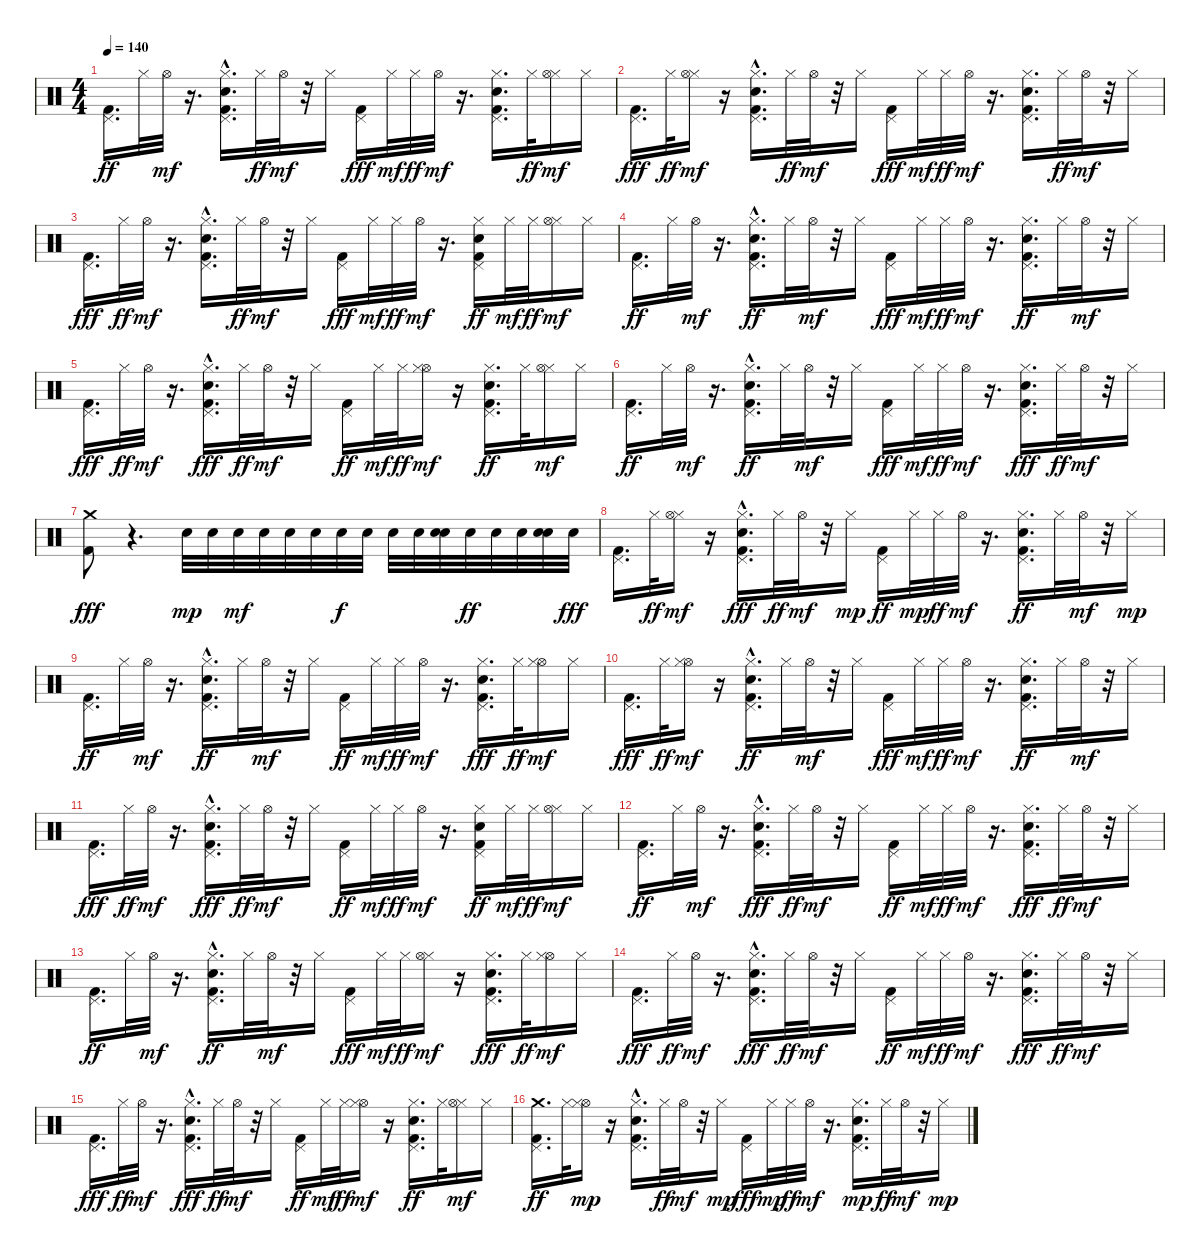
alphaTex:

\track "" {instrument percussion}
\staff {score}
\articulation defaults
\ts (4 4)
\tempo 140
\clef neutral
\ks c
("Kick (hit) 2" "Pedal Hi-Hat (hit)").16{d dy ff} "Hi-Hat (closed)".32 "Hi-Hat (open)".32{dy mf} r.16{d} ("Hand Clap (hit)"{hac} "Kick (hit) 2" "Pedal Hi-Hat (hit)" "Hi-Hat (closed)").16{d} "Hi-Hat (closed)".32{dy ff} "Hi-Hat (open)".32{dy mf} r.32 "Hi-Hat (closed)".16 ("Pedal Hi-Hat (hit)" "Kick (hit) 2").16{dy fff} "Hi-Hat (closed)".32{dy mf} "Hi-Hat (closed)".32{dy ff} "Hi-Hat (open)".32{dy mf} r.16{d} ("Pedal Hi-Hat (hit)" "Kick (hit) 2" "Hi-Hat (closed)" "Hand Clap (hit)").16{d} "Hi-Hat (closed)".32{dy ff} ("Hi-Hat (closed)" "Hi-Hat (open)").16{dy mf} "Hi-Hat (closed)".16 |
("Pedal Hi-Hat (hit)" "Kick (hit) 2").16{d dy fff} "Hi-Hat (closed)".32{dy ff} ("Hi-Hat (closed)" "Hi-Hat (open)").16{dy mf} r.16 ("Pedal Hi-Hat (hit)" "Kick (hit) 2" "Hi-Hat (closed)" "Hand Clap (hit)"{hac}).16{d} "Hi-Hat (closed)".32{dy ff} "Hi-Hat (open)".32{dy mf} r.32 "Hi-Hat (closed)".16 ("Pedal Hi-Hat (hit)" "Kick (hit) 2").16{dy fff} "Hi-Hat (closed)".32{dy mf} "Hi-Hat (closed)".32{dy ff} "Hi-Hat (open)".32{dy mf} r.16{d} ("Pedal Hi-Hat (hit)" "Kick (hit) 2" "Hi-Hat (closed)" "Hand Clap (hit)").16{d} "Hi-Hat (closed)".32{dy ff} "Hi-Hat (open)".32{dy mf} r.32 "Hi-Hat (closed)".16 |
("Pedal Hi-Hat (hit)" "Kick (hit) 2").16{d dy fff} "Hi-Hat (closed)".32{dy ff} "Hi-Hat (open)".32{dy mf} r.16{d} ("Pedal Hi-Hat (hit)" "Kick (hit) 2" "Hi-Hat (closed)" "Hand Clap (hit)"{hac}).16{d} "Hi-Hat (closed)".32{dy ff} "Hi-Hat (open)".32{dy mf} r.32 "Hi-Hat (closed)".16 ("Pedal Hi-Hat (hit)" "Kick (hit) 2").16{dy fff} "Hi-Hat (closed)".32{dy mf} "Hi-Hat (closed)".32{dy ff} "Hi-Hat (open)".32{dy mf} r.16{d} ("Hi-Hat (closed)" "Hand Clap (hit)" "Kick (hit) 2" "Pedal Hi-Hat (hit)").16{dy ff} "Hi-Hat (closed)".32{dy mf} "Hi-Hat (closed)".32{dy ff} ("Hi-Hat (closed)" "Hi-Hat (open)").16{dy mf} "Hi-Hat (closed)".16 |
("Kick (hit) 2" "Pedal Hi-Hat (hit)").16{d dy ff} "Hi-Hat (closed)".32 "Hi-Hat (open)".32{dy mf} r.16{d} ("Hand Clap (hit)"{hac} "Hi-Hat (closed)" "Kick (hit) 2" "Pedal Hi-Hat (hit)").16{d dy ff} "Hi-Hat (closed)".32 "Hi-Hat (open)".32{dy mf} r.32 "Hi-Hat (closed)".16 ("Pedal Hi-Hat (hit)" "Kick (hit) 2").16{dy fff} "Hi-Hat (closed)".32{dy mf} "Hi-Hat (closed)".32{dy ff} "Hi-Hat (open)".32{dy mf} r.16{d} ("Hand Clap (hit)" "Hi-Hat (closed)" "Kick (hit) 2" "Pedal Hi-Hat (hit)").16{d dy ff} "Hi-Hat (closed)".32 "Hi-Hat (open)".32{dy mf} r.32 "Hi-Hat (closed)".16 |
("Pedal Hi-Hat (hit)" "Kick (hit) 2").16{d dy fff} "Hi-Hat (closed)".32{dy ff} "Hi-Hat (open)".32{dy mf} r.16{d} ("Pedal Hi-Hat (hit)" "Hi-Hat (closed)" "Hand Clap (hit)"{hac} "Kick (hit) 2").16{d dy fff} "Hi-Hat (closed)".32{dy ff} "Hi-Hat (open)".32{dy mf} r.32 "Hi-Hat (closed)".16 ("Kick (hit) 2" "Pedal Hi-Hat (hit)").16{dy ff} "Hi-Hat (closed)".32{dy mf} "Hi-Hat (closed)".32{dy ff} ("Hi-Hat (open)" "Hi-Hat (closed)").16{dy mf} r.16 ("Hand Clap (hit)" "Hi-Hat (closed)" "Kick (hit) 2" "Pedal Hi-Hat (hit)").16{d dy ff} "Hi-Hat (closed)".32 ("Hi-Hat (closed)" "Hi-Hat (open)").16{dy mf} "Hi-Hat (closed)".16 |
("Kick (hit) 2" "Pedal Hi-Hat (hit)").16{d dy ff} "Hi-Hat (closed)".32 "Hi-Hat (open)".32{dy mf} r.16{d} ("Hand Clap (hit)"{hac} "Hi-Hat (closed)" "Kick (hit) 2" "Pedal Hi-Hat (hit)").16{d dy ff} "Hi-Hat (closed)".32 "Hi-Hat (open)".32{dy mf} r.32 "Hi-Hat (closed)".16 ("Pedal Hi-Hat (hit)" "Kick (hit) 2").16{dy fff} "Hi-Hat (closed)".32{dy mf} "Hi-Hat (closed)".32{dy ff} "Hi-Hat (open)".32{dy mf} r.16{d} ("Pedal Hi-Hat (hit)" "Hi-Hat (closed)" "Kick (hit) 2" "Hand Clap (hit)").16{d dy fff} "Hi-Hat (closed)".32{dy ff} "Hi-Hat (open)".32{dy mf} r.32 "Hi-Hat (closed)".16 |
("Crash medium (hit)" "Kick (hit) 2").8{dy fff} r.4{d} "Snare (hit) 2".32{dy mp} "Snare (hit) 2".32 "Snare (hit) 2".32{dy mf} "Snare (hit) 2".32 "Snare (hit) 2".32 "Snare (hit) 2".32 "Snare (hit) 2".32{dy f} "Snare (hit) 2".32 "Snare (hit) 2".32 "Snare (hit) 2".32 ("Snare (hit) 2" "Snare (hit) 2").32 "Snare (hit) 2".32{dy ff} "Snare (hit) 2".32 "Snare (hit) 2".32 ("Snare (hit) 2" "Snare (hit) 2").32 "Snare (hit) 2".32{dy fff} |
("Pedal Hi-Hat (hit)" "Kick (hit) 2").16{d} "Hi-Hat (closed)".32{dy ff} ("Hi-Hat (closed)" "Hi-Hat (open)").16{dy mf} r.16 ("Pedal Hi-Hat (hit)" "Hi-Hat (closed)" "Hand Clap (hit)"{hac} "Kick (hit) 2").16{d dy fff} "Hi-Hat (closed)".32{dy ff} "Hi-Hat (open)".32{dy mf} r.32 "Hi-Hat (closed)".16{dy mp} ("Kick (hit) 2" "Pedal Hi-Hat (hit)").16{dy ff} "Hi-Hat (closed)".32{dy mp} "Hi-Hat (closed)".32{dy ff} "Hi-Hat (open)".32{dy mf} r.16{d} ("Kick (hit) 2" "Hand Clap (hit)" "Hi-Hat (closed)" "Pedal Hi-Hat (hit)").16{d dy ff} "Hi-Hat (closed)".32 "Hi-Hat (open)".32{dy mf} r.32 "Hi-Hat (closed)".16{dy mp} |
("Kick (hit) 2" "Pedal Hi-Hat (hit)").16{d dy ff} "Hi-Hat (closed)".32 "Hi-Hat (open)".32{dy mf} r.16{d} ("Hand Clap (hit)"{hac} "Hi-Hat (closed)" "Kick (hit) 2" "Pedal Hi-Hat (hit)").16{d dy ff} "Hi-Hat (closed)".32 "Hi-Hat (open)".32{dy mf} r.32 "Hi-Hat (closed)".16 ("Kick (hit) 2" "Pedal Hi-Hat (hit)").16{dy ff} "Hi-Hat (closed)".32{dy mf} "Hi-Hat (closed)".32{dy ff} "Hi-Hat (open)".32{dy mf} r.16{d} ("Hi-Hat (closed)" "Pedal Hi-Hat (hit)" "Hand Clap (hit)" "Kick (hit) 2").16{d dy fff} "Hi-Hat (closed)".32{dy ff} ("Hi-Hat (open)" "Hi-Hat (closed)").16{dy mf} "Hi-Hat (closed)".16 |
("Pedal Hi-Hat (hit)" "Kick (hit) 2").16{d dy fff} "Hi-Hat (closed)".32{dy ff} ("Hi-Hat (open)" "Hi-Hat (closed)").16{dy mf} r.16 ("Kick (hit) 2" "Hi-Hat (closed)" "Hand Clap (hit)"{hac} "Pedal Hi-Hat (hit)").16{d dy ff} "Hi-Hat (closed)".32 "Hi-Hat (open)".32{dy mf} r.32 "Hi-Hat (closed)".16 ("Pedal Hi-Hat (hit)" "Kick (hit) 2").16{dy fff} "Hi-Hat (closed)".32{dy mf} "Hi-Hat (closed)".32{dy ff} "Hi-Hat (open)".32{dy mf} r.16{d} ("Kick (hit) 2" "Hi-Hat (closed)" "Hand Clap (hit)" "Pedal Hi-Hat (hit)").16{d dy ff} "Hi-Hat (closed)".32 "Hi-Hat (open)".32{dy mf} r.32 "Hi-Hat (closed)".16 |
("Pedal Hi-Hat (hit)" "Kick (hit) 2").16{d dy fff} "Hi-Hat (closed)".32{dy ff} "Hi-Hat (open)".32{dy mf} r.16{d} ("Hi-Hat (closed)" "Pedal Hi-Hat (hit)" "Hand Clap (hit)"{hac} "Kick (hit) 2").16{d dy fff} "Hi-Hat (closed)".32{dy ff} "Hi-Hat (open)".32{dy mf} r.32 "Hi-Hat (closed)".16 ("Kick (hit) 2" "Pedal Hi-Hat (hit)").16{dy ff} "Hi-Hat (closed)".32{dy mf} "Hi-Hat (closed)".32{dy ff} "Hi-Hat (open)".32{dy mf} r.16{d} ("Hi-Hat (closed)" "Kick (hit) 2" "Pedal Hi-Hat (hit)" "Hand Clap (hit)").16{dy ff} "Hi-Hat (closed)".32{dy mf} "Hi-Hat (closed)".32{dy ff} ("Hi-Hat (closed)" "Hi-Hat (open)").16{dy mf} "Hi-Hat (closed)".16 |
("Kick (hit) 2" "Pedal Hi-Hat (hit)").16{d dy ff} "Hi-Hat (closed)".32 "Hi-Hat (open)".32{dy mf} r.16{d} ("Pedal Hi-Hat (hit)" "Hi-Hat (closed)" "Hand Clap (hit)"{hac} "Kick (hit) 2").16{d dy fff} "Hi-Hat (closed)".32{dy ff} "Hi-Hat (open)".32{dy mf} r.32 "Hi-Hat (closed)".16 ("Kick (hit) 2" "Pedal Hi-Hat (hit)").16{dy ff} "Hi-Hat (closed)".32{dy mf} "Hi-Hat (closed)".32{dy ff} "Hi-Hat (open)".32{dy mf} r.16{d} ("Pedal Hi-Hat (hit)" "Hi-Hat (closed)" "Hand Clap (hit)" "Kick (hit) 2").16{d dy fff} "Hi-Hat (closed)".32{dy ff} "Hi-Hat (open)".32{dy mf} r.32 "Hi-Hat (closed)".16 |
("Kick (hit) 2" "Pedal Hi-Hat (hit)").16{d dy ff} "Hi-Hat (closed)".32 "Hi-Hat (open)".32{dy mf} r.16{d} ("Kick (hit) 2" "Hi-Hat (closed)" "Hand Clap (hit)"{hac} "Pedal Hi-Hat (hit)").16{d dy ff} "Hi-Hat (closed)".32 "Hi-Hat (open)".32{dy mf} r.32 "Hi-Hat (closed)".16 ("Pedal Hi-Hat (hit)" "Kick (hit) 2").16{dy fff} "Hi-Hat (closed)".32{dy mf} "Hi-Hat (closed)".32{dy ff} ("Hi-Hat (closed)" "Hi-Hat (open)").16{dy mf} r.16 ("Pedal Hi-Hat (hit)" "Hi-Hat (closed)" "Hand Clap (hit)" "Kick (hit) 2").16{d dy fff} "Hi-Hat (closed)".32{dy ff} ("Hi-Hat (open)" "Hi-Hat (closed)").16{dy mf} "Hi-Hat (closed)".16 |
("Pedal Hi-Hat (hit)" "Kick (hit) 2").16{d dy fff} "Hi-Hat (closed)".32{dy ff} "Hi-Hat (open)".32{dy mf} r.16{d} ("Pedal Hi-Hat (hit)" "Hi-Hat (closed)" "Hand Clap (hit)"{hac} "Kick (hit) 2").16{d dy fff} "Hi-Hat (closed)".32{dy ff} "Hi-Hat (open)".32{dy mf} r.32 "Hi-Hat (closed)".16 ("Kick (hit) 2" "Pedal Hi-Hat (hit)").16{dy ff} "Hi-Hat (closed)".32{dy mf} "Hi-Hat (closed)".32{dy ff} "Hi-Hat (open)".32{dy mf} r.16{d} ("Pedal Hi-Hat (hit)" "Hi-Hat (closed)" "Hand Clap (hit)" "Kick (hit) 2").16{d dy fff} "Hi-Hat (closed)".32{dy ff} "Hi-Hat (open)".32{dy mf} r.32 "Hi-Hat (closed)".16 |
("Pedal Hi-Hat (hit)" "Kick (hit) 2").16{d dy fff} "Hi-Hat (closed)".32{dy ff} "Hi-Hat (open)".32{dy mf} r.16{d} ("Pedal Hi-Hat (hit)" "Hi-Hat (closed)" "Hand Clap (hit)"{hac} "Kick (hit) 2").16{d dy fff} "Hi-Hat (closed)".32{dy ff} "Hi-Hat (open)".32{dy mf} r.32 "Hi-Hat (closed)".16 ("Kick (hit) 2" "Pedal Hi-Hat (hit)").16{dy ff} "Hi-Hat (closed)".32{dy mf} "Hi-Hat (closed)".32{dy ff} ("Hi-Hat (open)" "Hi-Hat (closed)").16{dy mf} r.16 ("Hand Clap (hit)" "Hi-Hat (closed)" "Kick (hit) 2" "Pedal Hi-Hat (hit)").16{d dy ff} "Hi-Hat (closed)".32 ("Hi-Hat (closed)" "Hi-Hat (open)").16{dy mf} "Hi-Hat (closed)".16 |
("Kick (hit) 2" "Pedal Hi-Hat (hit)" "Crash medium (hit)").16{d dy ff} "Hi-Hat (closed)".32 ("Hi-Hat (open)" "Hi-Hat (closed)").16{dy mp} r.16 ("Kick (hit) 2" "Pedal Hi-Hat (hit)" "Hand Clap (hit)"{hac} "Hi-Hat (closed)").16{d} "Hi-Hat (closed)".32{dy ff} "Hi-Hat (open)".32{dy mf} r.32 "Hi-Hat (closed)".16{dy mp} ("Pedal Hi-Hat (hit)" "Kick (hit) 2").16{dy fff} "Hi-Hat (closed)".32{dy mp} "Hi-Hat (closed)".32{dy ff} "Hi-Hat (open)".32{dy mf} r.16{d} ("Pedal Hi-Hat (hit)" "Kick (hit) 2" "Hi-Hat (closed)" "Hand Clap (hit)").16{d dy mp} "Hi-Hat (closed)".32{dy ff} "Hi-Hat (open)".32{dy mf} r.32 "Hi-Hat (closed)".16{dy mp}
